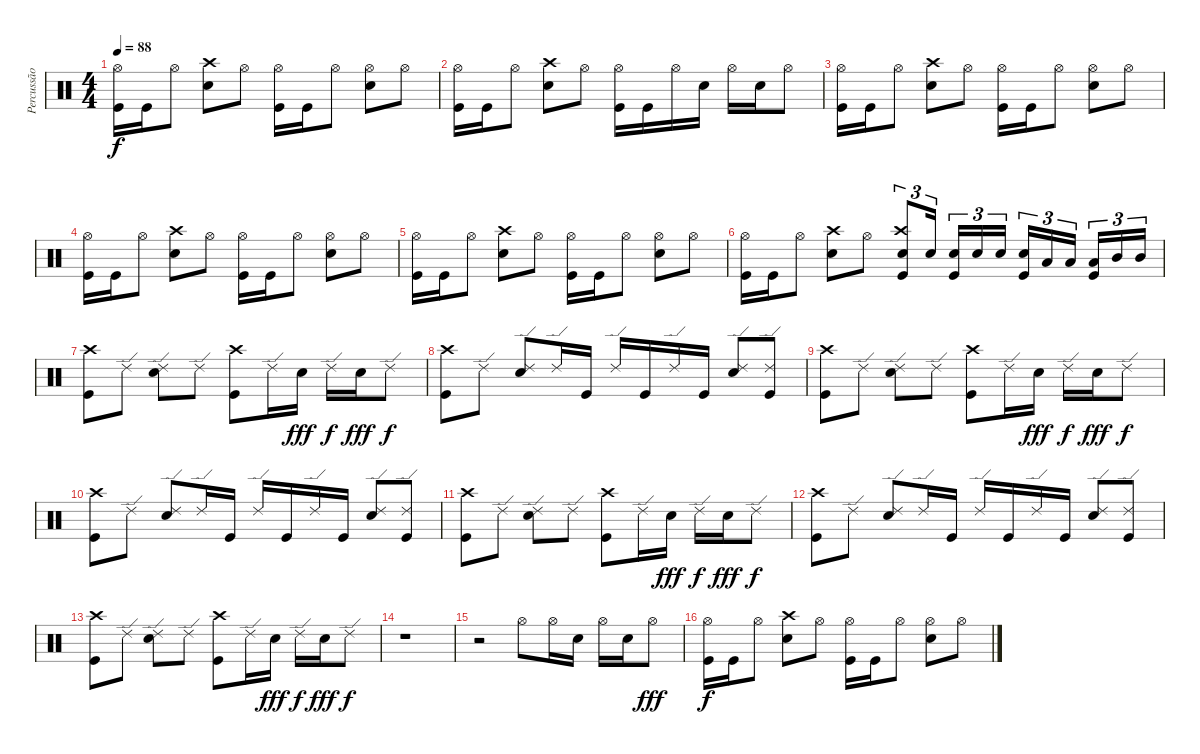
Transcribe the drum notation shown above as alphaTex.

\track ("Percussão" "Percussão") {instrument percussion}
\staff {score}
\articulation defaults
\ts (4 4)
\tempo 88
\clef neutral
\ks c
("Hi-Hat (open)" "Kick (hit)").16{dy f} "Kick (hit)".16 "Hi-Hat (open)".8 ("Crash high (hit)" "Electric Snare (hit)").8 "Hi-Hat (open)".8 ("Hi-Hat (open)" "Kick (hit)").16 "Kick (hit)".16 "Hi-Hat (open)".8 ("Hi-Hat (open)" "Electric Snare (hit)").8 "Hi-Hat (open)".8 |
("Hi-Hat (open)" "Kick (hit)").16 "Kick (hit)".16 "Hi-Hat (open)".8 ("Crash high (hit)" "Electric Snare (hit)").8 "Hi-Hat (open)".8 ("Hi-Hat (open)" "Kick (hit)").16 "Kick (hit)".16 "Hi-Hat (open)".16 "Electric Snare (hit)".16 "Hi-Hat (open)".16 "Electric Snare (hit)".16 "Hi-Hat (open)".8 |
("Hi-Hat (open)" "Kick (hit)").16 "Kick (hit)".16 "Hi-Hat (open)".8 ("Crash high (hit)" "Electric Snare (hit)").8 "Hi-Hat (open)".8 ("Hi-Hat (open)" "Kick (hit)").16 "Kick (hit)".16 "Hi-Hat (open)".8 ("Hi-Hat (open)" "Electric Snare (hit)").8 "Hi-Hat (open)".8 |
("Hi-Hat (open)" "Kick (hit)").16 "Kick (hit)".16 "Hi-Hat (open)".8 ("Crash high (hit)" "Electric Snare (hit)").8 "Hi-Hat (open)".8 ("Hi-Hat (open)" "Kick (hit)").16 "Kick (hit)".16 "Hi-Hat (open)".8 ("Hi-Hat (open)" "Electric Snare (hit)").8 "Hi-Hat (open)".8 |
("Hi-Hat (open)" "Kick (hit)").16 "Kick (hit)".16 "Hi-Hat (open)".8 ("Crash high (hit)" "Electric Snare (hit)").8 "Hi-Hat (open)".8 ("Hi-Hat (open)" "Kick (hit)").16 "Kick (hit)".16 "Hi-Hat (open)".8 ("Hi-Hat (open)" "Electric Snare (hit)").8 "Hi-Hat (open)".8 |
("Hi-Hat (open)" "Kick (hit)").16 "Kick (hit)".16 "Hi-Hat (open)".8 ("Crash high (hit)" "Electric Snare (hit)").8 "Hi-Hat (open)".8 ("Crash high (hit)" "Electric Snare (hit)" "Kick (hit)").8{tu (3 2)} "Electric Snare (hit)".16{tu (3 2)} ("Electric Snare (hit)" "Kick (hit)").16{tu (3 2)} "Electric Snare (hit)".16{tu (3 2)} "Electric Snare (hit)".16{tu (3 2)} ("Electric Snare (hit)" "Kick (hit)").16{tu (3 2)} "Low Tom (hit)".16{tu (3 2)} "Low Tom (hit)".16{tu (3 2)} ("Low Tom (hit)" "Kick (hit)").16{tu (3 2)} "Mid Tom (hit)".16{tu (3 2)} "Mid Tom (hit)".16{tu (3 2)} |
("Crash high (hit)" "Kick (hit)").8 "Ride (edge) 2".8 ("Ride (edge) 2" "Electric Snare (hit)").8 "Ride (edge) 2".8 ("Crash high (hit)" "Kick (hit)").8 "Ride (edge) 2".16 "Electric Snare (hit)".16{dy fff} "Ride (edge) 2".16{dy f} "Electric Snare (hit)".16{dy fff} "Ride (edge) 2".8{dy f} |
("Crash high (hit)" "Kick (hit)").8 "Ride (edge) 2".8 ("Ride (edge) 2" "Electric Snare (hit)").8 "Ride (edge) 2".16 "Kick (hit)".16 "Ride (edge) 2".16 "Kick (hit)".16 "Ride (edge) 2".16 "Kick (hit)".16 ("Ride (edge) 2" "Electric Snare (hit)").8 ("Ride (edge) 2" "Kick (hit)").8 |
("Crash high (hit)" "Kick (hit)").8 "Ride (edge) 2".8 ("Ride (edge) 2" "Electric Snare (hit)").8 "Ride (edge) 2".8 ("Crash high (hit)" "Kick (hit)").8 "Ride (edge) 2".16 "Electric Snare (hit)".16{dy fff} "Ride (edge) 2".16{dy f} "Electric Snare (hit)".16{dy fff} "Ride (edge) 2".8{dy f} |
("Crash high (hit)" "Kick (hit)").8 "Ride (edge) 2".8 ("Ride (edge) 2" "Electric Snare (hit)").8 "Ride (edge) 2".16 "Kick (hit)".16 "Ride (edge) 2".16 "Kick (hit)".16 "Ride (edge) 2".16 "Kick (hit)".16 ("Ride (edge) 2" "Electric Snare (hit)").8 ("Ride (edge) 2" "Kick (hit)").8 |
("Crash high (hit)" "Kick (hit)").8 "Ride (edge) 2".8 ("Ride (edge) 2" "Electric Snare (hit)").8 "Ride (edge) 2".8 ("Crash high (hit)" "Kick (hit)").8 "Ride (edge) 2".16 "Electric Snare (hit)".16{dy fff} "Ride (edge) 2".16{dy f} "Electric Snare (hit)".16{dy fff} "Ride (edge) 2".8{dy f} |
("Crash high (hit)" "Kick (hit)").8 "Ride (edge) 2".8 ("Ride (edge) 2" "Electric Snare (hit)").8 "Ride (edge) 2".16 "Kick (hit)".16 "Ride (edge) 2".16 "Kick (hit)".16 "Ride (edge) 2".16 "Kick (hit)".16 ("Ride (edge) 2" "Electric Snare (hit)").8 ("Ride (edge) 2" "Kick (hit)").8 |
("Crash high (hit)" "Kick (hit)").8 "Ride (edge) 2".8 ("Ride (edge) 2" "Electric Snare (hit)").8 "Ride (edge) 2".8 ("Crash high (hit)" "Kick (hit)").8 "Ride (edge) 2".16 "Electric Snare (hit)".16{dy fff} "Ride (edge) 2".16{dy f} "Electric Snare (hit)".16{dy fff} "Ride (edge) 2".8{dy f} |
r.1 |
r.2 "Hi-Hat (open)".8 "Hi-Hat (open)".16 "Electric Snare (hit)".16 "Hi-Hat (open)".16 "Electric Snare (hit)".16 "Hi-Hat (open)".8{dy fff} |
("Hi-Hat (open)" "Kick (hit)").16{dy f} "Kick (hit)".16 "Hi-Hat (open)".8 ("Crash high (hit)" "Electric Snare (hit)").8 "Hi-Hat (open)".8 ("Hi-Hat (open)" "Kick (hit)").16 "Kick (hit)".16 "Hi-Hat (open)".8 ("Hi-Hat (open)" "Electric Snare (hit)").8 "Hi-Hat (open)".8
